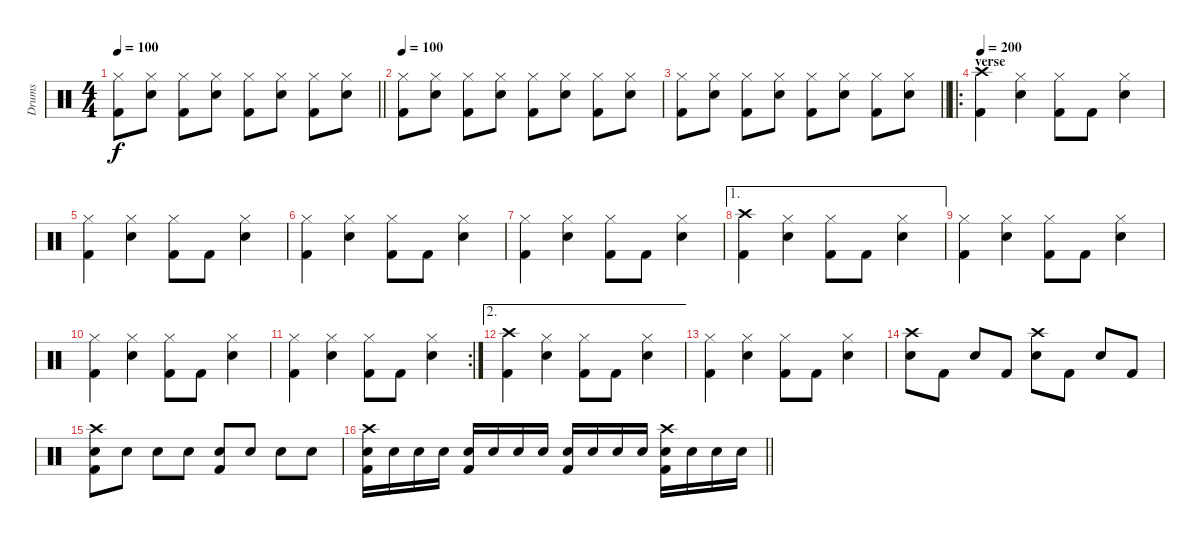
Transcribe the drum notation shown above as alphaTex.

\track ("Drums" "Drums") {instrument percussion}
\staff {score}
\articulation defaults
\ts (4 4)
\tempo 100
\clef neutral
\barLineRight lightlight
\ks c
("Hi-Hat (closed)" "Kick (hit) 2").8{dy f} ("Hi-Hat (closed)" "Electric Snare (hit)").8 ("Hi-Hat (closed)" "Kick (hit) 2").8 ("Hi-Hat (closed)" "Electric Snare (hit)").8 ("Hi-Hat (closed)" "Kick (hit) 2").8 ("Hi-Hat (closed)" "Electric Snare (hit)").8 ("Hi-Hat (closed)" "Kick (hit) 2").8 ("Hi-Hat (closed)" "Electric Snare (hit)").8 |
\tempo 100
("Hi-Hat (closed)" "Kick (hit) 2").8 ("Hi-Hat (closed)" "Electric Snare (hit)").8 ("Hi-Hat (closed)" "Kick (hit) 2").8 ("Hi-Hat (closed)" "Electric Snare (hit)").8 ("Hi-Hat (closed)" "Kick (hit) 2").8 ("Hi-Hat (closed)" "Electric Snare (hit)").8 ("Hi-Hat (closed)" "Kick (hit) 2").8 ("Hi-Hat (closed)" "Electric Snare (hit)").8 |
\barLineRight lightlight
("Hi-Hat (closed)" "Kick (hit) 2").8 ("Hi-Hat (closed)" "Electric Snare (hit)").8 ("Hi-Hat (closed)" "Kick (hit) 2").8 ("Hi-Hat (closed)" "Electric Snare (hit)").8 ("Hi-Hat (closed)" "Kick (hit) 2").8 ("Hi-Hat (closed)" "Electric Snare (hit)").8 ("Hi-Hat (closed)" "Kick (hit) 2").8 ("Hi-Hat (closed)" "Electric Snare (hit)").8 |
\ro
\section ("" "verse")
\tempo 200
("Crash high (hit)" "Kick (hit) 2").4 ("Hi-Hat (closed)" "Electric Snare (hit)").4 ("Hi-Hat (closed)" "Kick (hit) 2").8 "Kick (hit) 2".8 ("Hi-Hat (closed)" "Electric Snare (hit)").4 |
("Hi-Hat (closed)" "Kick (hit) 2").4 ("Hi-Hat (closed)" "Electric Snare (hit)").4 ("Hi-Hat (closed)" "Kick (hit) 2").8 "Kick (hit) 2".8 ("Hi-Hat (closed)" "Electric Snare (hit)").4 |
("Hi-Hat (closed)" "Kick (hit) 2").4 ("Hi-Hat (closed)" "Electric Snare (hit)").4 ("Hi-Hat (closed)" "Kick (hit) 2").8 "Kick (hit) 2".8 ("Hi-Hat (closed)" "Electric Snare (hit)").4 |
("Hi-Hat (closed)" "Kick (hit) 2").4 ("Hi-Hat (closed)" "Electric Snare (hit)").4 ("Hi-Hat (closed)" "Kick (hit) 2").8 "Kick (hit) 2".8 ("Hi-Hat (closed)" "Electric Snare (hit)").4 |
\ae 1
("Crash high (hit)" "Kick (hit) 2").4 ("Hi-Hat (closed)" "Electric Snare (hit)").4 ("Hi-Hat (closed)" "Kick (hit) 2").8 "Kick (hit) 2".8 ("Hi-Hat (closed)" "Electric Snare (hit)").4 |
("Hi-Hat (closed)" "Kick (hit) 2").4 ("Hi-Hat (closed)" "Electric Snare (hit)").4 ("Hi-Hat (closed)" "Kick (hit) 2").8 "Kick (hit) 2".8 ("Hi-Hat (closed)" "Electric Snare (hit)").4 |
("Hi-Hat (closed)" "Kick (hit) 2").4 ("Hi-Hat (closed)" "Electric Snare (hit)").4 ("Hi-Hat (closed)" "Kick (hit) 2").8 "Kick (hit) 2".8 ("Hi-Hat (closed)" "Electric Snare (hit)").4 |
\rc 2
("Hi-Hat (closed)" "Kick (hit) 2").4 ("Hi-Hat (closed)" "Electric Snare (hit)").4 ("Hi-Hat (closed)" "Kick (hit) 2").8 "Kick (hit) 2".8 ("Hi-Hat (closed)" "Electric Snare (hit)").4 |
\ae 2
("Crash high (hit)" "Kick (hit) 2").4 ("Hi-Hat (closed)" "Electric Snare (hit)").4 ("Hi-Hat (closed)" "Kick (hit) 2").8 "Kick (hit) 2".8 ("Hi-Hat (closed)" "Electric Snare (hit)").4 |
("Hi-Hat (closed)" "Kick (hit) 2").4 ("Hi-Hat (closed)" "Electric Snare (hit)").4 ("Hi-Hat (closed)" "Kick (hit) 2").8 "Kick (hit) 2".8 ("Hi-Hat (closed)" "Electric Snare (hit)").4 |
("Crash high (hit)" "Electric Snare (hit)").8 "Kick (hit) 2".8 "Electric Snare (hit)".8 "Kick (hit) 2".8 ("Crash high (hit)" "Electric Snare (hit)").8 "Kick (hit) 2".8 "Electric Snare (hit)".8 "Kick (hit) 2".8 |
("Crash high (hit)" "Kick (hit) 2" "Electric Snare (hit)").8 "Electric Snare (hit)".8 "Electric Snare (hit)".8 "Electric Snare (hit)".8 ("Kick (hit) 2" "Electric Snare (hit)").8 "Electric Snare (hit)".8 "Electric Snare (hit)".8 "Electric Snare (hit)".8 |
\barLineRight lightlight
("Crash high (hit)" "Kick (hit) 2" "Electric Snare (hit)").16 "Electric Snare (hit)".16 "Electric Snare (hit)".16 "Electric Snare (hit)".16 ("Kick (hit) 2" "Electric Snare (hit)").16 "Electric Snare (hit)".16 "Electric Snare (hit)".16 "Electric Snare (hit)".16 ("Kick (hit) 2" "Electric Snare (hit)").16 "Electric Snare (hit)".16 "Electric Snare (hit)".16 "Electric Snare (hit)".16 ("Crash high (hit)" "Kick (hit) 2" "Electric Snare (hit)").16 "Electric Snare (hit)".16 "Electric Snare (hit)".16 "Electric Snare (hit)".16
